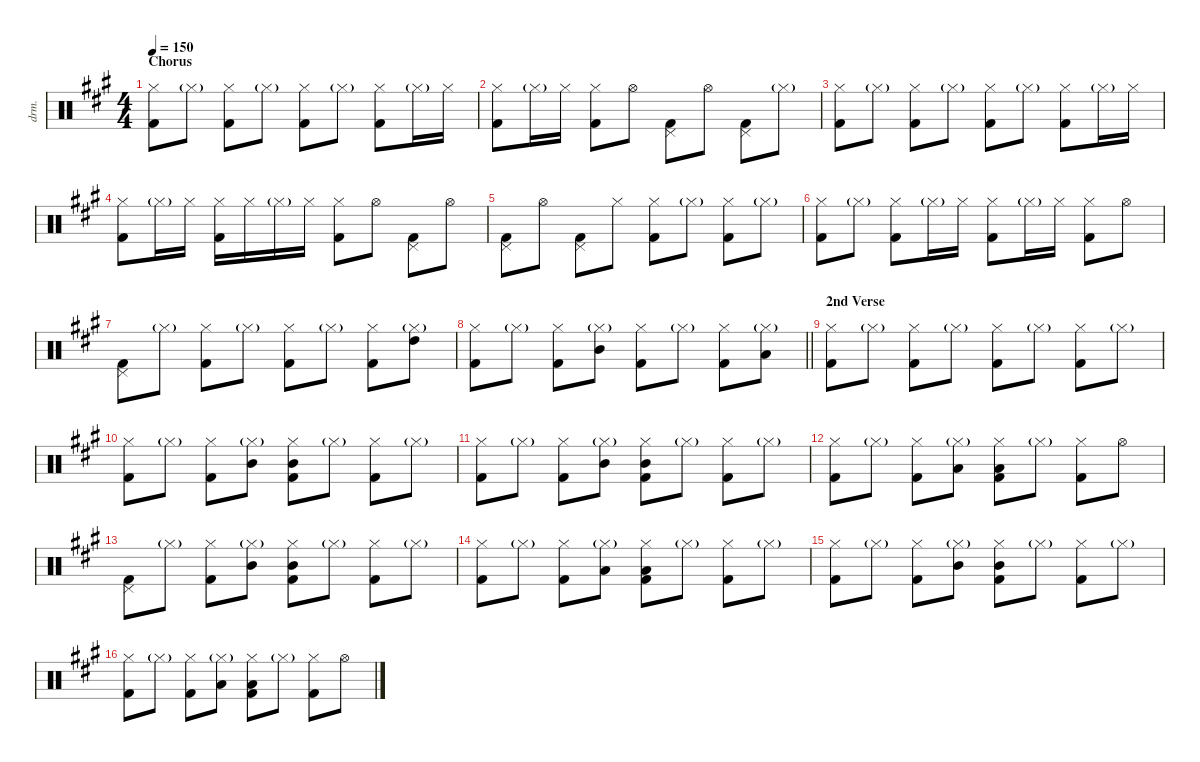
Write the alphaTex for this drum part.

\defaultSystemsLayout 4
\hideDynamics
\bracketExtendMode nobrackets
\otherSystemsTrackNameOrientation horizontal
\track ("Drums" "drm.") {instrument percussion}
\staff {score}
\articulation defaults
\ts (4 4)
\section ("" "Chorus")
\tempo 150
\clef neutral
\ks a
("Kick (hit) 2"{acc forcenatural} "Hi-Hat (closed)"{acc forcenatural}).8{dy fff} "Hi-Hat (closed)"{g acc forcenatural}.8{dy p} ("Kick (hit) 2"{acc forcenatural} "Hi-Hat (closed)"{acc forcenatural}).8{dy fff} "Hi-Hat (closed)"{g acc forcenatural}.8{dy p} ("Kick (hit) 2"{acc forcenatural} "Hi-Hat (closed)"{acc forcenatural}).8{dy fff} "Hi-Hat (closed)"{g acc forcenatural}.8{dy p} ("Kick (hit) 2"{acc forcenatural} "Hi-Hat (closed)"{acc forcenatural}).8{dy fff} "Hi-Hat (closed)"{g acc forcenatural}.16{dy p} "Hi-Hat (closed)"{acc forcenatural}.16{dy mf} |
("Kick (hit) 2"{acc forcenatural} "Hi-Hat (closed)"{acc forcenatural}).8{dy fff} "Hi-Hat (closed)"{g acc forcenatural}.16{dy p} "Hi-Hat (closed)"{acc forcenatural}.16{dy mf} ("Kick (hit) 2"{acc forcenatural} "Hi-Hat (closed)"{acc forcenatural}).8{dy fff} "Hi-Hat (open)"{acc forcenatural}.8{dy mp} ("Kick (hit) 2"{acc forcenatural} "Pedal Hi-Hat (hit)"{acc forcenatural}).8{dy fff} "Hi-Hat (open)"{acc forcenatural}.8{dy mp} ("Kick (hit) 2"{acc forcenatural} "Pedal Hi-Hat (hit)"{acc forcenatural}).8{dy fff} "Hi-Hat (closed)"{g acc forcenatural}.8{dy p} |
("Kick (hit) 2"{acc forcenatural} "Hi-Hat (closed)"{acc forcenatural}).8{dy fff} "Hi-Hat (closed)"{g acc forcenatural}.8{dy p} ("Kick (hit) 2"{acc forcenatural} "Hi-Hat (closed)"{acc forcenatural}).8{dy fff} "Hi-Hat (closed)"{g acc forcenatural}.8{dy p} ("Kick (hit) 2"{acc forcenatural} "Hi-Hat (closed)"{acc forcenatural}).8{dy fff} "Hi-Hat (closed)"{g acc forcenatural}.8{dy p} ("Kick (hit) 2"{acc forcenatural} "Hi-Hat (closed)"{acc forcenatural}).8{dy fff} "Hi-Hat (closed)"{g acc forcenatural}.16{dy p} "Hi-Hat (closed)"{acc forcenatural}.16{dy mf} |
("Kick (hit) 2"{acc forcenatural} "Hi-Hat (closed)"{acc forcenatural}).8{dy fff} "Hi-Hat (closed)"{g acc forcenatural}.16{dy p} "Hi-Hat (closed)"{acc forcenatural}.16{dy mf} ("Kick (hit) 2"{acc forcenatural} "Hi-Hat (closed)"{acc forcenatural}).16{dy fff} "Hi-Hat (closed)"{acc forcenatural}.16{dy pp} "Hi-Hat (closed)"{g acc forcenatural}.16{dy p} "Hi-Hat (closed)"{acc forcenatural}.16{dy mf} ("Kick (hit) 2"{acc forcenatural} "Hi-Hat (closed)"{acc forcenatural}).8{dy fff} "Hi-Hat (open)"{acc forcenatural}.8{dy mp} ("Kick (hit) 2"{acc forcenatural} "Pedal Hi-Hat (hit)"{acc forcenatural}).8{dy fff} "Hi-Hat (open)"{acc forcenatural}.8{dy pp} |
("Kick (hit) 2"{acc forcenatural} "Pedal Hi-Hat (hit)"{acc forcenatural}).8{dy fff} "Hi-Hat (open)"{acc forcenatural}.8{dy mf} ("Kick (hit) 2"{acc forcenatural} "Pedal Hi-Hat (hit)"{acc forcenatural}).8{dy fff} "Hi-Hat (closed)"{acc forcenatural}.8{dy mp} ("Kick (hit) 2"{acc forcenatural} "Hi-Hat (closed)"{acc forcenatural}).8{dy fff} "Hi-Hat (closed)"{g acc forcenatural}.8{dy p} ("Kick (hit) 2"{acc forcenatural} "Hi-Hat (closed)"{acc forcenatural}).8{dy fff} "Hi-Hat (closed)"{g acc forcenatural}.8{dy p} |
("Kick (hit) 2"{acc forcenatural} "Hi-Hat (closed)"{acc forcenatural}).8{dy fff} "Hi-Hat (closed)"{g acc forcenatural}.8{dy p} ("Kick (hit) 2"{acc forcenatural} "Hi-Hat (closed)"{acc forcenatural}).8{dy fff} "Hi-Hat (closed)"{g acc forcenatural}.16{dy p} "Hi-Hat (closed)"{acc forcenatural}.16{dy mf} ("Kick (hit) 2"{acc forcenatural} "Hi-Hat (closed)"{acc forcenatural}).8{dy fff} "Hi-Hat (closed)"{g acc forcenatural}.16{dy p} "Hi-Hat (closed)"{acc forcenatural}.16{dy mf} ("Kick (hit) 2"{acc forcenatural} "Hi-Hat (closed)"{acc forcenatural}).8{dy fff} "Hi-Hat (open)"{acc forcenatural}.8{dy mf} |
("Kick (hit) 2"{acc forcenatural} "Pedal Hi-Hat (hit)"{acc forcenatural}).8{dy fff} "Hi-Hat (closed)"{g acc forcenatural}.8{dy p} ("Kick (hit) 2"{acc forcenatural} "Hi-Hat (closed)"{acc forcenatural}).8{dy fff} "Hi-Hat (closed)"{g acc forcenatural}.8{dy p} ("Kick (hit) 2"{acc forcenatural} "Hi-Hat (closed)"{acc forcenatural}).8{dy fff} "Hi-Hat (closed)"{g acc forcenatural}.8{dy p} ("Kick (hit) 2"{acc forcenatural} "Hi-Hat (closed)"{acc forcenatural}).8{dy fff} ("Hi-Hat (closed)"{g acc forcenatural} "High Tom (hit)"{acc forcenatural}).8{dy mf} |
\barLineRight lightlight
("Kick (hit) 2"{acc forcenatural} "Hi-Hat (closed)"{acc forcenatural}).8{dy fff} "Hi-Hat (closed)"{g acc forcenatural}.8{dy p} ("Kick (hit) 2"{acc forcenatural} "Hi-Hat (closed)"{acc forcenatural}).8{dy fff} ("Hi-Hat (closed)"{g acc forcenatural} "Mid Tom (hit)"{acc forcenatural}).8{dy f} ("Kick (hit) 2"{acc forcenatural} "Hi-Hat (closed)"{acc forcenatural}).8{dy fff} "Hi-Hat (closed)"{g acc forcenatural}.8{dy p} ("Kick (hit) 2"{acc forcenatural} "Hi-Hat (closed)"{acc forcenatural}).8{dy fff} ("Hi-Hat (closed)"{g acc forcenatural} "Low Tom (hit)"{acc forcenatural}).8 |
\section ("" "2nd Verse")
("Kick (hit) 2"{acc forcenatural} "Hi-Hat (closed)"{acc forcenatural}).8 "Hi-Hat (closed)"{g acc forcenatural}.8{dy p} ("Kick (hit) 2"{acc forcenatural} "Hi-Hat (closed)"{acc forcenatural}).8{dy fff} "Hi-Hat (closed)"{g acc forcenatural}.8{dy p} ("Kick (hit) 2"{acc forcenatural} "Hi-Hat (closed)"{acc forcenatural}).8{dy fff} "Hi-Hat (closed)"{g acc forcenatural}.8{dy p} ("Kick (hit) 2"{acc forcenatural} "Hi-Hat (closed)"{acc forcenatural}).8{dy fff} "Hi-Hat (closed)"{g acc forcenatural}.8{dy p} |
("Kick (hit) 2"{acc forcenatural} "Hi-Hat (closed)"{acc forcenatural}).8{dy fff} "Hi-Hat (closed)"{g acc forcenatural}.8{dy p} ("Kick (hit) 2"{acc forcenatural} "Hi-Hat (closed)"{acc forcenatural}).8{dy fff} ("Hi-Hat (closed)"{g acc forcenatural} "Mid Tom (hit)"{acc forcenatural}).8{dy mp} ("Kick (hit) 2"{acc forcenatural} "Hi-Hat (closed)"{acc forcenatural} "Mid Tom (hit)"{acc forcenatural}).8{dy fff} "Hi-Hat (closed)"{g acc forcenatural}.8{dy p} ("Kick (hit) 2"{acc forcenatural} "Hi-Hat (closed)"{acc forcenatural}).8{dy fff} "Hi-Hat (closed)"{g acc forcenatural}.8{dy p} |
("Kick (hit) 2"{acc forcenatural} "Hi-Hat (closed)"{acc forcenatural}).8{dy fff} "Hi-Hat (closed)"{g acc forcenatural}.8{dy p} ("Kick (hit) 2"{acc forcenatural} "Hi-Hat (closed)"{acc forcenatural}).8{dy fff} ("Hi-Hat (closed)"{g acc forcenatural} "Mid Tom (hit)"{acc forcenatural}).8{dy mp} ("Kick (hit) 2"{acc forcenatural} "Hi-Hat (closed)"{acc forcenatural} "Mid Tom (hit)"{acc forcenatural}).8{dy fff} "Hi-Hat (closed)"{g acc forcenatural}.8{dy p} ("Kick (hit) 2"{acc forcenatural} "Hi-Hat (closed)"{acc forcenatural}).8{dy fff} "Hi-Hat (closed)"{g acc forcenatural}.8{dy p} |
("Kick (hit) 2"{acc forcenatural} "Hi-Hat (closed)"{acc forcenatural}).8{dy fff} "Hi-Hat (closed)"{g acc forcenatural}.8{dy p} ("Kick (hit) 2"{acc forcenatural} "Hi-Hat (closed)"{acc forcenatural}).8{dy fff} ("Hi-Hat (closed)"{g acc forcenatural} "Low Tom (hit)"{acc forcenatural}).8{dy mp} ("Kick (hit) 2"{acc forcenatural} "Hi-Hat (closed)"{acc forcenatural} "Low Tom (hit)"{acc forcenatural}).8{dy fff} "Hi-Hat (closed)"{g acc forcenatural}.8{dy p} ("Kick (hit) 2"{acc forcenatural} "Hi-Hat (closed)"{acc forcenatural}).8{dy fff} "Hi-Hat (open)"{acc forcenatural}.8{dy mp} |
("Kick (hit) 2"{acc forcenatural} "Pedal Hi-Hat (hit)"{acc forcenatural}).8{dy fff} "Hi-Hat (closed)"{g acc forcenatural}.8{dy p} ("Kick (hit) 2"{acc forcenatural} "Hi-Hat (closed)"{acc forcenatural}).8{dy fff} ("Hi-Hat (closed)"{g acc forcenatural} "Mid Tom (hit)"{acc forcenatural}).8{dy mp} ("Kick (hit) 2"{acc forcenatural} "Hi-Hat (closed)"{acc forcenatural} "Mid Tom (hit)"{acc forcenatural}).8{dy fff} "Hi-Hat (closed)"{g acc forcenatural}.8{dy p} ("Kick (hit) 2"{acc forcenatural} "Hi-Hat (closed)"{acc forcenatural}).8{dy fff} "Hi-Hat (closed)"{g acc forcenatural}.8{dy p} |
("Kick (hit) 2"{acc forcenatural} "Hi-Hat (closed)"{acc forcenatural}).8{dy fff} "Hi-Hat (closed)"{g acc forcenatural}.8{dy p} ("Kick (hit) 2"{acc forcenatural} "Hi-Hat (closed)"{acc forcenatural}).8{dy fff} ("Hi-Hat (closed)"{g acc forcenatural} "Low Tom (hit)"{acc forcenatural}).8{dy mp} ("Kick (hit) 2"{acc forcenatural} "Hi-Hat (closed)"{acc forcenatural} "Low Tom (hit)"{acc forcenatural}).8{dy fff} "Hi-Hat (closed)"{g acc forcenatural}.8{dy p} ("Kick (hit) 2"{acc forcenatural} "Hi-Hat (closed)"{acc forcenatural}).8{dy fff} "Hi-Hat (closed)"{g acc forcenatural}.8{dy p} |
("Kick (hit) 2"{acc forcenatural} "Hi-Hat (closed)"{acc forcenatural}).8{dy fff} "Hi-Hat (closed)"{g acc forcenatural}.8{dy p} ("Kick (hit) 2"{acc forcenatural} "Hi-Hat (closed)"{acc forcenatural}).8{dy fff} ("Hi-Hat (closed)"{g acc forcenatural} "Mid Tom (hit)"{acc forcenatural}).8{dy mp} ("Kick (hit) 2"{acc forcenatural} "Hi-Hat (closed)"{acc forcenatural} "Mid Tom (hit)"{acc forcenatural}).8{dy fff} "Hi-Hat (closed)"{g acc forcenatural}.8{dy p} ("Kick (hit) 2"{acc forcenatural} "Hi-Hat (closed)"{acc forcenatural}).8{dy fff} "Hi-Hat (closed)"{g acc forcenatural}.8{dy p} |
("Kick (hit) 2"{acc forcenatural} "Hi-Hat (closed)"{acc forcenatural}).8{dy fff} "Hi-Hat (closed)"{g acc forcenatural}.8{dy p} ("Kick (hit) 2"{acc forcenatural} "Hi-Hat (closed)"{acc forcenatural}).8{dy fff} ("Hi-Hat (closed)"{g acc forcenatural} "Low Tom (hit)"{acc forcenatural}).8{dy mp} ("Kick (hit) 2"{acc forcenatural} "Hi-Hat (closed)"{acc forcenatural} "Low Tom (hit)"{acc forcenatural}).8{dy fff} "Hi-Hat (closed)"{g acc forcenatural}.8{dy p} ("Kick (hit) 2"{acc forcenatural} "Hi-Hat (closed)"{acc forcenatural}).8{dy fff} "Hi-Hat (open)"{acc forcenatural}.8{dy mp}
